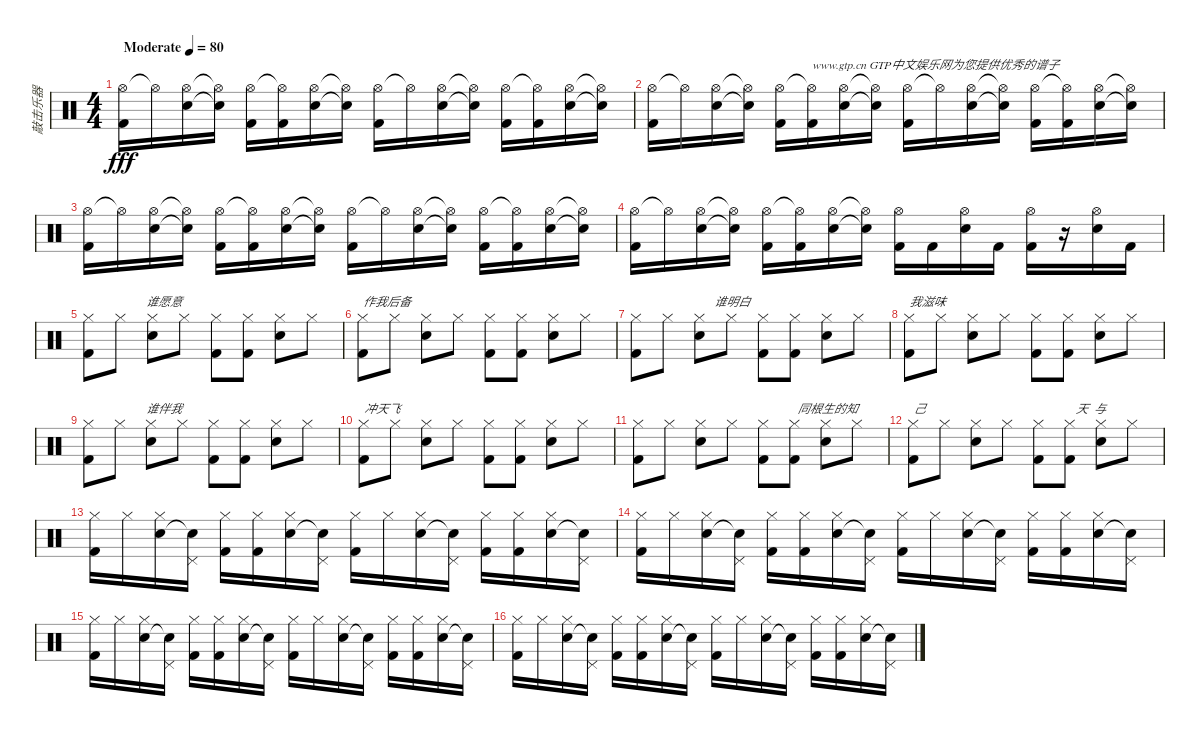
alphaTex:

\track ("敲击乐器" "敲击乐器") {instrument percussion}
\staff {score}
\articulation defaults
\ts (4 4)
\tempo (80 "Moderate")
\clef neutral
\ks c
("Hi-Hat (open)" "Kick (hit) 2").16{dy fff} "Hi-Hat (open)"{t}.16 ("Hi-Hat (open)" "Electric Snare (hit)").16 ("Hi-Hat (open)"{t} "Snare (hit)"{t}).16 ("Hi-Hat (open)" "Kick (hit) 2").16 ("Hi-Hat (open)"{t} "Kick (hit) 2").16 ("Hi-Hat (open)" "Electric Snare (hit)").16 ("Hi-Hat (open)"{t} "Snare (hit)"{t}).16 ("Hi-Hat (open)" "Kick (hit) 2").16 "Hi-Hat (open)"{t}.16 ("Hi-Hat (open)" "Electric Snare (hit)").16 ("Hi-Hat (open)"{t} "Snare (hit)"{t}).16 ("Hi-Hat (open)" "Kick (hit) 2").16 ("Hi-Hat (open)"{t} "Kick (hit) 2").16 ("Hi-Hat (open)" "Electric Snare (hit)").16 ("Hi-Hat (open)"{t} "Snare (hit)"{t}).16 |
("Hi-Hat (open)" "Kick (hit) 2").16 "Hi-Hat (open)"{t}.16 ("Hi-Hat (open)" "Electric Snare (hit)").16 ("Hi-Hat (open)"{t} "Snare (hit)"{t}).16 ("Hi-Hat (open)" "Kick (hit) 2").16 ("Hi-Hat (open)"{t} "Kick (hit) 2").16{txt "www.gtp.cn GTP中文娱乐网为您提供优秀的谱子"} ("Hi-Hat (open)" "Electric Snare (hit)").16 ("Hi-Hat (open)"{t} "Snare (hit)"{t}).16 ("Hi-Hat (open)" "Kick (hit) 2").16 "Hi-Hat (open)"{t}.16 ("Hi-Hat (open)" "Electric Snare (hit)").16 ("Hi-Hat (open)"{t} "Snare (hit)"{t}).16 ("Hi-Hat (open)" "Kick (hit) 2").16 ("Hi-Hat (open)"{t} "Kick (hit) 2").16 ("Hi-Hat (open)" "Electric Snare (hit)").16 ("Hi-Hat (open)"{t} "Snare (hit)"{t}).16 |
("Hi-Hat (open)" "Kick (hit) 2").16 "Hi-Hat (open)"{t}.16 ("Hi-Hat (open)" "Electric Snare (hit)").16 ("Hi-Hat (open)"{t} "Snare (hit)"{t}).16 ("Hi-Hat (open)" "Kick (hit) 2").16 ("Hi-Hat (open)"{t} "Kick (hit) 2").16 ("Hi-Hat (open)" "Electric Snare (hit)").16 ("Hi-Hat (open)"{t} "Snare (hit)"{t}).16 ("Hi-Hat (open)" "Kick (hit) 2").16 "Hi-Hat (open)"{t}.16 ("Hi-Hat (open)" "Electric Snare (hit)").16 ("Hi-Hat (open)"{t} "Snare (hit)"{t}).16 ("Hi-Hat (open)" "Kick (hit) 2").16 ("Hi-Hat (open)"{t} "Kick (hit) 2").16 ("Hi-Hat (open)" "Electric Snare (hit)").16 ("Hi-Hat (open)"{t} "Snare (hit)"{t}).16 |
("Hi-Hat (open)" "Kick (hit) 2").16 "Hi-Hat (open)"{t}.16 ("Hi-Hat (open)" "Electric Snare (hit)").16 ("Hi-Hat (open)"{t} "Snare (hit)"{t}).16 ("Hi-Hat (open)" "Kick (hit) 2").16 ("Hi-Hat (open)"{t} "Kick (hit) 2").16 ("Hi-Hat (open)" "Electric Snare (hit)").16 ("Hi-Hat (open)"{t} "Snare (hit)"{t}).16 ("Hi-Hat (open)" "Kick (hit) 2").16 "Kick (hit) 2".16 ("Hi-Hat (open)" "Electric Snare (hit)").16 "Kick (hit) 2".16 ("Hi-Hat (open)" "Kick (hit) 2").16 r.16 ("Hi-Hat (open)" "Electric Snare (hit)").16 "Kick (hit) 2".16 |
("Hi-Hat (closed)" "Kick (hit) 2").8{txt "                   谁愿意"} "Hi-Hat (closed)".8 ("Hi-Hat (closed)" "Electric Snare (hit)").8 "Hi-Hat (closed)".8 ("Hi-Hat (closed)" "Kick (hit) 2").8 ("Hi-Hat (closed)" "Kick (hit) 2").8 ("Hi-Hat (closed)" "Electric Snare (hit)").8 "Hi-Hat (closed)".8 |
("Hi-Hat (closed)" "Kick (hit) 2").8{txt "作我后备"} "Hi-Hat (closed)".8 ("Hi-Hat (closed)" "Electric Snare (hit)").8 "Hi-Hat (closed)".8 ("Hi-Hat (closed)" "Kick (hit) 2").8 ("Hi-Hat (closed)" "Kick (hit) 2").8 ("Hi-Hat (closed)" "Electric Snare (hit)").8 "Hi-Hat (closed)".8 |
("Hi-Hat (closed)" "Kick (hit) 2").8{txt "                          谁明白"} "Hi-Hat (closed)".8 ("Hi-Hat (closed)" "Electric Snare (hit)").8 "Hi-Hat (closed)".8 ("Hi-Hat (closed)" "Kick (hit) 2").8 ("Hi-Hat (closed)" "Kick (hit) 2").8 ("Hi-Hat (closed)" "Electric Snare (hit)").8 "Hi-Hat (closed)".8 |
("Hi-Hat (closed)" "Kick (hit) 2").8{txt "我滋味"} "Hi-Hat (closed)".8 ("Hi-Hat (closed)" "Electric Snare (hit)").8 "Hi-Hat (closed)".8 ("Hi-Hat (closed)" "Kick (hit) 2").8 ("Hi-Hat (closed)" "Kick (hit) 2").8 ("Hi-Hat (closed)" "Electric Snare (hit)").8 "Hi-Hat (closed)".8 |
("Hi-Hat (closed)" "Kick (hit) 2").8{txt "                   谁伴我"} "Hi-Hat (closed)".8 ("Hi-Hat (closed)" "Electric Snare (hit)").8 "Hi-Hat (closed)".8 ("Hi-Hat (closed)" "Kick (hit) 2").8 ("Hi-Hat (closed)" "Kick (hit) 2").8 ("Hi-Hat (closed)" "Electric Snare (hit)").8 "Hi-Hat (closed)".8 |
("Hi-Hat (closed)" "Kick (hit) 2").8{txt "冲天飞"} "Hi-Hat (closed)".8 ("Hi-Hat (closed)" "Electric Snare (hit)").8 "Hi-Hat (closed)".8 ("Hi-Hat (closed)" "Kick (hit) 2").8 ("Hi-Hat (closed)" "Kick (hit) 2").8 ("Hi-Hat (closed)" "Electric Snare (hit)").8 "Hi-Hat (closed)".8 |
("Hi-Hat (closed)" "Kick (hit) 2").8 "Hi-Hat (closed)".8 ("Hi-Hat (closed)" "Electric Snare (hit)").8 "Hi-Hat (closed)".8 ("Hi-Hat (closed)" "Kick (hit) 2").8 ("Hi-Hat (closed)" "Kick (hit) 2").8{txt " 同根生的知"} ("Hi-Hat (closed)" "Electric Snare (hit)").8 "Hi-Hat (closed)".8 |
("Hi-Hat (closed)" "Kick (hit) 2").8{txt "己"} "Hi-Hat (closed)".8 ("Hi-Hat (closed)" "Electric Snare (hit)").8 "Hi-Hat (closed)".8 ("Hi-Hat (closed)" "Kick (hit) 2").8 ("Hi-Hat (closed)" "Kick (hit) 2").8{txt "  天  与"} ("Hi-Hat (closed)" "Electric Snare (hit)").8 "Hi-Hat (closed)".8 |
("Hi-Hat (closed)" "Kick (hit) 2").16 "Hi-Hat (closed)".16 ("Hi-Hat (closed)" "Electric Snare (hit)").16 ("Pedal Hi-Hat (hit)" "Snare (hit)"{t}).16 ("Hi-Hat (closed)" "Kick (hit) 2").16 ("Hi-Hat (closed)" "Kick (hit) 2").16 ("Hi-Hat (closed)" "Electric Snare (hit)").16 ("Pedal Hi-Hat (hit)" "Snare (hit)"{t}).16 ("Hi-Hat (closed)" "Kick (hit) 2").16 "Hi-Hat (closed)".16 ("Hi-Hat (closed)" "Electric Snare (hit)").16 ("Pedal Hi-Hat (hit)" "Snare (hit)"{t}).16 ("Hi-Hat (closed)" "Kick (hit) 2").16 ("Hi-Hat (closed)" "Kick (hit) 2").16 ("Hi-Hat (closed)" "Electric Snare (hit)").16 ("Pedal Hi-Hat (hit)" "Snare (hit)"{t}).16 |
("Hi-Hat (closed)" "Kick (hit) 2").16 "Hi-Hat (closed)".16 ("Hi-Hat (closed)" "Electric Snare (hit)").16 ("Pedal Hi-Hat (hit)" "Snare (hit)"{t}).16 ("Hi-Hat (closed)" "Kick (hit) 2").16 ("Hi-Hat (closed)" "Kick (hit) 2").16 ("Hi-Hat (closed)" "Electric Snare (hit)").16 ("Pedal Hi-Hat (hit)" "Snare (hit)"{t}).16 ("Hi-Hat (closed)" "Kick (hit) 2").16 "Hi-Hat (closed)".16 ("Hi-Hat (closed)" "Electric Snare (hit)").16 ("Pedal Hi-Hat (hit)" "Snare (hit)"{t}).16 ("Hi-Hat (closed)" "Kick (hit) 2").16 ("Hi-Hat (closed)" "Kick (hit) 2").16 ("Hi-Hat (closed)" "Electric Snare (hit)").16 ("Pedal Hi-Hat (hit)" "Snare (hit)"{t}).16 |
("Hi-Hat (closed)" "Kick (hit) 2").16 "Hi-Hat (closed)".16 ("Hi-Hat (closed)" "Electric Snare (hit)").16 ("Pedal Hi-Hat (hit)" "Snare (hit)"{t}).16 ("Hi-Hat (closed)" "Kick (hit) 2").16 ("Hi-Hat (closed)" "Kick (hit) 2").16 ("Hi-Hat (closed)" "Electric Snare (hit)").16 ("Pedal Hi-Hat (hit)" "Snare (hit)"{t}).16 ("Hi-Hat (closed)" "Kick (hit) 2").16 "Hi-Hat (closed)".16 ("Hi-Hat (closed)" "Electric Snare (hit)").16 ("Pedal Hi-Hat (hit)" "Snare (hit)"{t}).16 ("Hi-Hat (closed)" "Kick (hit) 2").16 ("Hi-Hat (closed)" "Kick (hit) 2").16 ("Hi-Hat (closed)" "Electric Snare (hit)").16 ("Pedal Hi-Hat (hit)" "Snare (hit)"{t}).16 |
("Hi-Hat (closed)" "Kick (hit) 2").16 "Hi-Hat (closed)".16 ("Hi-Hat (closed)" "Electric Snare (hit)").16 ("Pedal Hi-Hat (hit)" "Snare (hit)"{t}).16 ("Hi-Hat (closed)" "Kick (hit) 2").16 ("Hi-Hat (closed)" "Kick (hit) 2").16 ("Hi-Hat (closed)" "Electric Snare (hit)").16 ("Pedal Hi-Hat (hit)" "Snare (hit)"{t}).16 ("Hi-Hat (closed)" "Kick (hit) 2").16 "Hi-Hat (closed)".16 ("Hi-Hat (closed)" "Electric Snare (hit)").16 ("Pedal Hi-Hat (hit)" "Snare (hit)"{t}).16 ("Hi-Hat (closed)" "Kick (hit) 2").16 ("Hi-Hat (closed)" "Kick (hit) 2").16 ("Hi-Hat (closed)" "Electric Snare (hit)").16 ("Pedal Hi-Hat (hit)" "Snare (hit)"{t}).16
